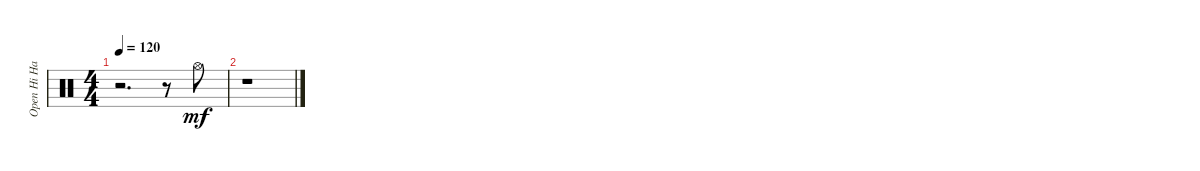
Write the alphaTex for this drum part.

\track ("Open Hi Hat" "Open Hi Ha") {instrument percussion}
\staff {score}
\articulation defaults
\ts (4 4)
\tempo 120
\clef neutral
\ks c
r.2{d dy mf} r.8 "Hi-Hat (open)".8 |
r.1
